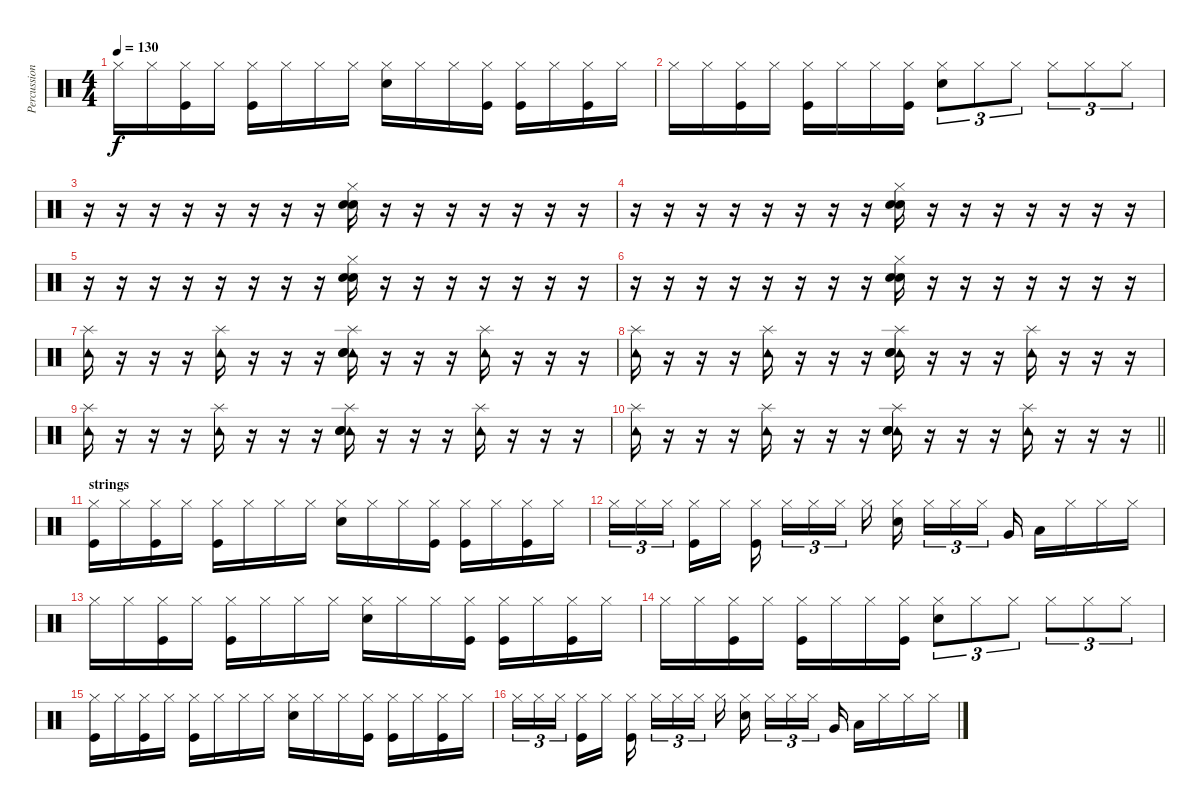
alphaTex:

\track ("Percussion" "Percussion") {instrument percussion}
\staff {score}
\articulation defaults
\ts (4 4)
\tempo 130
\clef neutral
\ks c "Hi-Hat (closed)".16{dy f} "Hi-Hat (closed)".16
("Hi-Hat (closed)" "Kick (hit)").16 "Hi-Hat (closed)".16 ("Hi-Hat (closed)" "Kick (hit)").16 "Hi-Hat (closed)".16 "Hi-Hat (closed)".16 "Hi-Hat (closed)".16 ("Hi-Hat (closed)" "Hand Clap (hit)").16 "Hi-Hat (closed)".16 "Hi-Hat (closed)".16 ("Hi-Hat (closed)" "Kick (hit)").16 ("Hi-Hat (closed)" "Kick (hit)").16 "Hi-Hat (closed)".16 ("Hi-Hat (closed)" "Kick (hit)").16 "Hi-Hat (closed)".16 |
"Hi-Hat (closed)".16 "Hi-Hat (closed)".16 ("Hi-Hat (closed)" "Kick (hit)").16 "Hi-Hat (closed)".16 ("Hi-Hat (closed)" "Kick (hit)").16 "Hi-Hat (closed)".16 "Hi-Hat (closed)".16 ("Hi-Hat (closed)" "Kick (hit)").16 ("Hi-Hat (closed)" "Hand Clap (hit)").8{tu (3 2)} "Hi-Hat (closed)".8{tu (3 2)} "Hi-Hat (closed)".8{tu (3 2)} "Hi-Hat (closed)".8{tu (3 2)} "Hi-Hat (closed)".8{tu (3 2)} "Hi-Hat (closed)".8{tu (3 2)} |
r.16 r.16 r.16 r.16 r.16 r.16 r.16 r.16 ("Hi-Hat (closed)" "Hand Clap (hit)" "Electric Snare (hit)").16 r.16 r.16 r.16 r.16 r.16 r.16 r.16 |
r.16 r.16 r.16 r.16 r.16 r.16 r.16 r.16 ("Hi-Hat (closed)" "Hand Clap (hit)" "Electric Snare (hit)").16 r.16 r.16 r.16 r.16 r.16 r.16 r.16 |
r.16 r.16 r.16 r.16 r.16 r.16 r.16 r.16 ("Hi-Hat (closed)" "Hand Clap (hit)" "Electric Snare (hit)").16 r.16 r.16 r.16 r.16 r.16 r.16 r.16 |
r.16 r.16 r.16 r.16 r.16 r.16 r.16 r.16 ("Hi-Hat (closed)" "Hand Clap (hit)" "Electric Snare (hit)").16 r.16 r.16 r.16 r.16 r.16 r.16 r.16 |
("Splash (hit)" "Tambourine (hit)").16 r.16 r.16 r.16 ("Splash (hit)" "Tambourine (hit)").16 r.16 r.16 r.16 ("Splash (hit)" "Tambourine (hit)" "Hand Clap (hit)" "Electric Snare (hit)").16 r.16 r.16 r.16 ("Splash (hit)" "Tambourine (hit)").16 r.16 r.16 r.16 |
("Splash (hit)" "Tambourine (hit)").16 r.16 r.16 r.16 ("Splash (hit)" "Tambourine (hit)").16 r.16 r.16 r.16 ("Splash (hit)" "Tambourine (hit)" "Hand Clap (hit)" "Electric Snare (hit)").16 r.16 r.16 r.16 ("Splash (hit)" "Tambourine (hit)").16 r.16 r.16 r.16 |
("Splash (hit)" "Tambourine (hit)").16 r.16 r.16 r.16 ("Splash (hit)" "Tambourine (hit)").16 r.16 r.16 r.16 ("Splash (hit)" "Tambourine (hit)" "Hand Clap (hit)" "Electric Snare (hit)").16 r.16 r.16 r.16 ("Splash (hit)" "Tambourine (hit)").16 r.16 r.16 r.16 |
\barLineRight lightlight
("Splash (hit)" "Tambourine (hit)").16 r.16 r.16 r.16 ("Splash (hit)" "Tambourine (hit)").16 r.16 r.16 r.16 ("Splash (hit)" "Tambourine (hit)" "Hand Clap (hit)" "Electric Snare (hit)").16 r.16 r.16 r.16 ("Splash (hit)" "Tambourine (hit)").16 r.16 r.16 r.16 |
\section ("" "strings")
("Hi-Hat (closed)" "Kick (hit)").16 "Hi-Hat (closed)".16 ("Hi-Hat (closed)" "Kick (hit)").16 "Hi-Hat (closed)".16 ("Hi-Hat (closed)" "Kick (hit)").16 "Hi-Hat (closed)".16 "Hi-Hat (closed)".16 "Hi-Hat (closed)".16 ("Hi-Hat (closed)" "Hand Clap (hit)").16 "Hi-Hat (closed)".16 "Hi-Hat (closed)".16 ("Hi-Hat (closed)" "Kick (hit)").16 ("Hi-Hat (closed)" "Kick (hit)").16 "Hi-Hat (closed)".16 ("Hi-Hat (closed)" "Kick (hit)").16 "Hi-Hat (closed)".16 |
"Hi-Hat (closed)".16{tu (3 2)} "Hi-Hat (closed)".16{tu (3 2)} "Hi-Hat (closed)".16{tu (3 2) beam splitsecondary} ("Hi-Hat (closed)" "Kick (hit)").16 "Hi-Hat (closed)".16 ("Hi-Hat (closed)" "Kick (hit)").16{beam splitsecondary} "Hi-Hat (closed)".16{tu (3 2)} "Hi-Hat (closed)".16{tu (3 2)} "Hi-Hat (closed)".16{tu (3 2) beam splitsecondary} "Hi-Hat (closed)".16 ("Hi-Hat (closed)" "Hand Clap (hit)").16{beam splitsecondary} "Hi-Hat (closed)".16{tu (3 2)} "Hi-Hat (closed)".16{tu (3 2)} "Hi-Hat (closed)".16{tu (3 2) beam splitsecondary} "Very Low Tom (hit)".16 "Low Floor Tom (hit)".16 "Hi-Hat (closed)".16 "Hi-Hat (closed)".16 "Hi-Hat (closed)".16 |
"Hi-Hat (closed)".16 "Hi-Hat (closed)".16 ("Hi-Hat (closed)" "Kick (hit)").16 "Hi-Hat (closed)".16 ("Hi-Hat (closed)" "Kick (hit)").16 "Hi-Hat (closed)".16 "Hi-Hat (closed)".16 "Hi-Hat (closed)".16 ("Hi-Hat (closed)" "Hand Clap (hit)").16 "Hi-Hat (closed)".16 "Hi-Hat (closed)".16 ("Hi-Hat (closed)" "Kick (hit)").16 ("Hi-Hat (closed)" "Kick (hit)").16 "Hi-Hat (closed)".16 ("Hi-Hat (closed)" "Kick (hit)").16 "Hi-Hat (closed)".16 |
"Hi-Hat (closed)".16 "Hi-Hat (closed)".16 ("Hi-Hat (closed)" "Kick (hit)").16 "Hi-Hat (closed)".16 ("Hi-Hat (closed)" "Kick (hit)").16 "Hi-Hat (closed)".16 "Hi-Hat (closed)".16 ("Hi-Hat (closed)" "Kick (hit)").16 ("Hi-Hat (closed)" "Hand Clap (hit)").8{tu (3 2)} "Hi-Hat (closed)".8{tu (3 2)} "Hi-Hat (closed)".8{tu (3 2)} "Hi-Hat (closed)".8{tu (3 2)} "Hi-Hat (closed)".8{tu (3 2)} "Hi-Hat (closed)".8{tu (3 2)} |
("Hi-Hat (closed)" "Kick (hit)").16 "Hi-Hat (closed)".16 ("Hi-Hat (closed)" "Kick (hit)").16 "Hi-Hat (closed)".16 ("Hi-Hat (closed)" "Kick (hit)").16 "Hi-Hat (closed)".16 "Hi-Hat (closed)".16 "Hi-Hat (closed)".16 ("Hi-Hat (closed)" "Hand Clap (hit)").16 "Hi-Hat (closed)".16 "Hi-Hat (closed)".16 ("Hi-Hat (closed)" "Kick (hit)").16 ("Hi-Hat (closed)" "Kick (hit)").16 "Hi-Hat (closed)".16 ("Hi-Hat (closed)" "Kick (hit)").16 "Hi-Hat (closed)".16 |
"Hi-Hat (closed)".16{tu (3 2)} "Hi-Hat (closed)".16{tu (3 2)} "Hi-Hat (closed)".16{tu (3 2) beam splitsecondary} ("Hi-Hat (closed)" "Kick (hit)").16 "Hi-Hat (closed)".16 ("Hi-Hat (closed)" "Kick (hit)").16{beam splitsecondary} "Hi-Hat (closed)".16{tu (3 2)} "Hi-Hat (closed)".16{tu (3 2)} "Hi-Hat (closed)".16{tu (3 2) beam splitsecondary} "Hi-Hat (closed)".16 ("Hi-Hat (closed)" "Hand Clap (hit)").16{beam splitsecondary} "Hi-Hat (closed)".16{tu (3 2)} "Hi-Hat (closed)".16{tu (3 2)} "Hi-Hat (closed)".16{tu (3 2) beam splitsecondary} "Very Low Tom (hit)".16 "Low Floor Tom (hit)".16 "Hi-Hat (closed)".16 "Hi-Hat (closed)".16 "Hi-Hat (closed)".16
